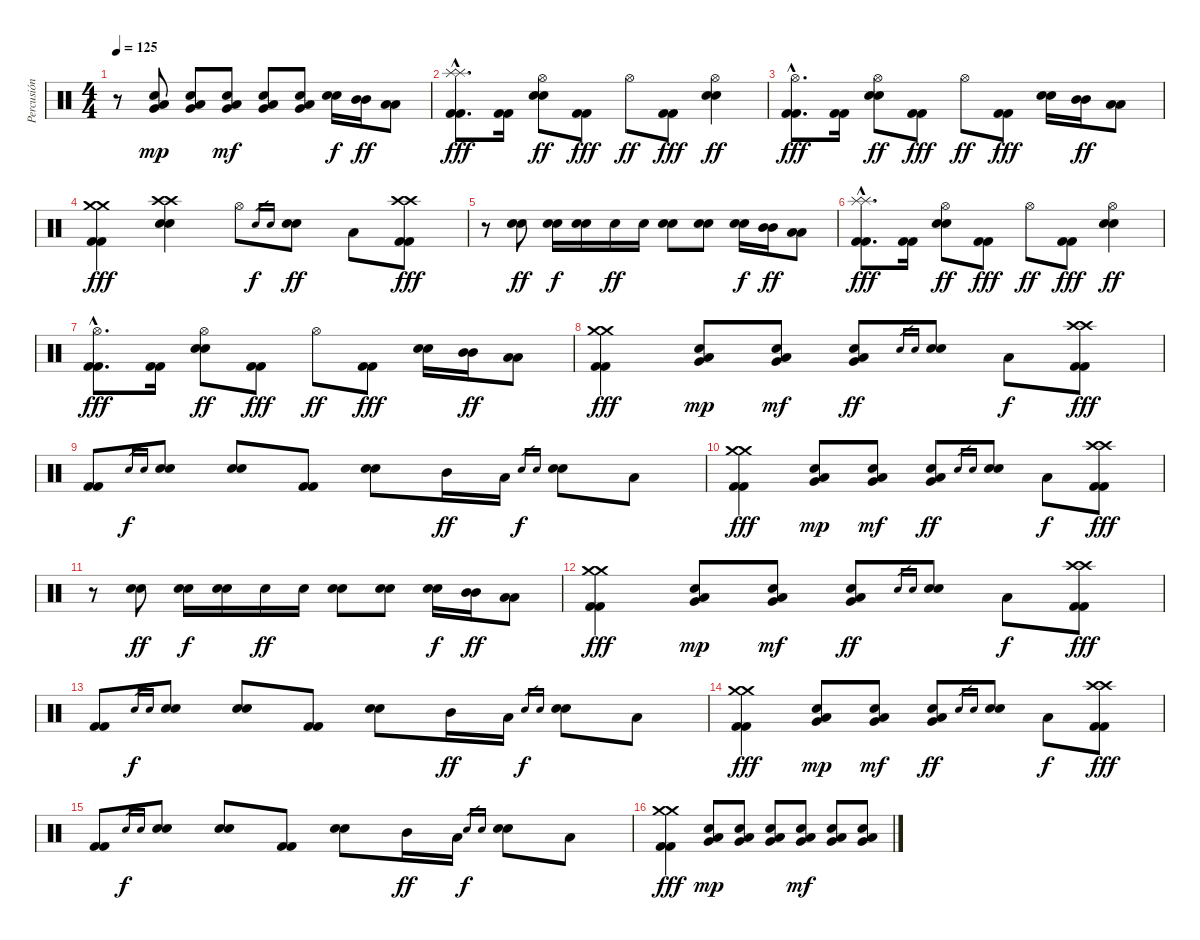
\track ("Percusión" "Percusión") {instrument percussion}
\staff {score}
\articulation defaults
\ts (4 4)
\tempo 125
\clef neutral
\ks c
r.8{dy fff} ("Electric Snare (hit)" "Low Tom (hit)" "Very Low Tom (hit)").8{dy mp} ("Electric Snare (hit)" "Low Tom (hit)" "Very Low Tom (hit)").8 ("Electric Snare (hit)" "Low Tom (hit)" "Very Low Tom (hit)").8{dy mf} ("Electric Snare (hit)" "Low Tom (hit)" "Very Low Tom (hit)").8 ("Electric Snare (hit)" "Low Tom (hit)" "Very Low Tom (hit)").8 ("Electric Snare (hit)" "Electric Snare (hit)").16{dy f} ("Mid Tom (hit)" "Mid Tom (hit)").16{dy ff} ("Low Tom (hit)" "Low Tom (hit)").8 |
("Splash (hit)"{hac} "Splash (hit)"{hac} "Kick (hit) 2"{hac} "Kick (hit) 2"{hac}).8{d dy fff} ("Kick (hit) 2" "Kick (hit) 2").16 ("Hi-Hat (open)" "Electric Snare (hit)" "Electric Snare (hit)").8{dy ff} ("Kick (hit) 2" "Kick (hit) 2").8{dy fff} "Hi-Hat (open)".8{dy ff} ("Kick (hit) 2" "Kick (hit) 2").8{dy fff} ("Hi-Hat (open)" "Electric Snare (hit)" "Electric Snare (hit)").4{dy ff} |
("Hi-Hat (open)"{hac} "Kick (hit) 2"{hac} "Kick (hit) 2"{hac}).8{d dy fff} ("Kick (hit) 2" "Kick (hit) 2").16 ("Hi-Hat (open)" "Electric Snare (hit)" "Electric Snare (hit)").8{dy ff} ("Kick (hit) 2" "Kick (hit) 2").8{dy fff} "Hi-Hat (open)".8{dy ff} ("Kick (hit) 2" "Kick (hit) 2").8{dy fff} ("Electric Snare (hit)" "Electric Snare (hit)").16 ("Mid Tom (hit)" "Mid Tom (hit)").16{dy ff} ("Low Tom (hit)" "Low Tom (hit)").8 |
("Crash medium (hit)" "Crash medium (hit)" "Kick (hit) 2" "Kick (hit) 2").4{dy fff} ("Crash high (hit)" "Crash high (hit)" "Electric Snare (hit)" "Electric Snare (hit)").4 "Hi-Hat (open)".8 "Electric Snare (hit)".16{gr dy f} "Electric Snare (hit)".16{gr} ("Electric Snare (hit)" "Electric Snare (hit)").8{dy ff} "Low Tom (hit)".8 ("Crash high (hit)" "Crash high (hit)" "Kick (hit) 2" "Kick (hit) 2").8{dy fff} |
r.8 ("Electric Snare (hit)" "Electric Snare (hit)").8{dy ff} ("Electric Snare (hit)" "Electric Snare (hit)").16{dy f} ("Electric Snare (hit)" "Electric Snare (hit)").16 "Electric Snare (hit)".16{dy ff} "Electric Snare (hit)".16 ("Electric Snare (hit)" "Electric Snare (hit)").8 ("Electric Snare (hit)" "Electric Snare (hit)").8 ("Electric Snare (hit)" "Electric Snare (hit)").16{dy f} ("Mid Tom (hit)" "Mid Tom (hit)").16{dy ff} ("Low Tom (hit)" "Low Tom (hit)").8 |
("Splash (hit)"{hac} "Splash (hit)"{hac} "Kick (hit) 2"{hac} "Kick (hit) 2"{hac}).8{d dy fff} ("Kick (hit) 2" "Kick (hit) 2").16 ("Hi-Hat (open)" "Electric Snare (hit)" "Electric Snare (hit)").8{dy ff} ("Kick (hit) 2" "Kick (hit) 2").8{dy fff} "Hi-Hat (open)".8{dy ff} ("Kick (hit) 2" "Kick (hit) 2").8{dy fff} ("Hi-Hat (open)" "Electric Snare (hit)" "Electric Snare (hit)").4{dy ff} |
("Hi-Hat (open)"{hac} "Kick (hit) 2"{hac} "Kick (hit) 2"{hac}).8{d dy fff} ("Kick (hit) 2" "Kick (hit) 2").16 ("Hi-Hat (open)" "Electric Snare (hit)" "Electric Snare (hit)").8{dy ff} ("Kick (hit) 2" "Kick (hit) 2").8{dy fff} "Hi-Hat (open)".8{dy ff} ("Kick (hit) 2" "Kick (hit) 2").8{dy fff} ("Electric Snare (hit)" "Electric Snare (hit)").16 ("Mid Tom (hit)" "Mid Tom (hit)").16{dy ff} ("Low Tom (hit)" "Low Tom (hit)").8 |
("Crash medium (hit)" "Crash medium (hit)" "Kick (hit) 2" "Kick (hit) 2").4{dy fff} ("Electric Snare (hit)" "Low Tom (hit)" "Very Low Tom (hit)").8{dy mp} ("Electric Snare (hit)" "Low Tom (hit)" "Very Low Tom (hit)").8{dy mf} ("Electric Snare (hit)" "Low Tom (hit)" "Very Low Tom (hit)").8{dy ff} "Electric Snare (hit)".16{gr} "Electric Snare (hit)".16{gr} ("Electric Snare (hit)" "Electric Snare (hit)").8 "Low Tom (hit)".8{dy f} ("Crash high (hit)" "Crash high (hit)" "Kick (hit) 2" "Kick (hit) 2").8{dy fff} |
("Kick (hit) 2" "Kick (hit) 2").8 "Electric Snare (hit)".16{gr dy f} "Electric Snare (hit)".16{gr} ("Electric Snare (hit)" "Electric Snare (hit)").8 ("Electric Snare (hit)" "Electric Snare (hit)").8 ("Kick (hit) 2" "Kick (hit) 2").8 ("Electric Snare (hit)" "Electric Snare (hit)").8 "Mid Tom (hit)".16{dy ff} "Low Tom (hit)".16 "Electric Snare (hit)".16{gr dy f} "Electric Snare (hit)".16{gr} ("Electric Snare (hit)" "Electric Snare (hit)").8 "Low Tom (hit)".8 |
("Crash medium (hit)" "Crash medium (hit)" "Kick (hit) 2" "Kick (hit) 2").4{dy fff} ("Electric Snare (hit)" "Low Tom (hit)" "Very Low Tom (hit)").8{dy mp} ("Electric Snare (hit)" "Low Tom (hit)" "Very Low Tom (hit)").8{dy mf} ("Electric Snare (hit)" "Low Tom (hit)" "Very Low Tom (hit)").8{dy ff} "Electric Snare (hit)".16{gr} "Electric Snare (hit)".16{gr} ("Electric Snare (hit)" "Electric Snare (hit)").8 "Low Tom (hit)".8{dy f} ("Crash high (hit)" "Crash high (hit)" "Kick (hit) 2" "Kick (hit) 2").8{dy fff} |
r.8 ("Electric Snare (hit)" "Electric Snare (hit)").8{dy ff} ("Electric Snare (hit)" "Electric Snare (hit)").16{dy f} ("Electric Snare (hit)" "Electric Snare (hit)").16 "Electric Snare (hit)".16{dy ff} "Electric Snare (hit)".16 ("Electric Snare (hit)" "Electric Snare (hit)").8 ("Electric Snare (hit)" "Electric Snare (hit)").8 ("Electric Snare (hit)" "Electric Snare (hit)").16{dy f} ("Mid Tom (hit)" "Mid Tom (hit)").16{dy ff} ("Low Tom (hit)" "Low Tom (hit)").8 |
("Crash medium (hit)" "Crash medium (hit)" "Kick (hit) 2" "Kick (hit) 2").4{dy fff} ("Electric Snare (hit)" "Low Tom (hit)" "Very Low Tom (hit)").8{dy mp} ("Electric Snare (hit)" "Low Tom (hit)" "Very Low Tom (hit)").8{dy mf} ("Electric Snare (hit)" "Low Tom (hit)" "Very Low Tom (hit)").8{dy ff} "Electric Snare (hit)".16{gr} "Electric Snare (hit)".16{gr} ("Electric Snare (hit)" "Electric Snare (hit)").8 "Low Tom (hit)".8{dy f} ("Crash high (hit)" "Crash high (hit)" "Kick (hit) 2" "Kick (hit) 2").8{dy fff} |
("Kick (hit) 2" "Kick (hit) 2").8 "Electric Snare (hit)".16{gr dy f} "Electric Snare (hit)".16{gr} ("Electric Snare (hit)" "Electric Snare (hit)").8 ("Electric Snare (hit)" "Electric Snare (hit)").8 ("Kick (hit) 2" "Kick (hit) 2").8 ("Electric Snare (hit)" "Electric Snare (hit)").8 "Mid Tom (hit)".16{dy ff} "Low Tom (hit)".16 "Electric Snare (hit)".16{gr dy f} "Electric Snare (hit)".16{gr} ("Electric Snare (hit)" "Electric Snare (hit)").8 "Low Tom (hit)".8 |
("Crash medium (hit)" "Crash medium (hit)" "Kick (hit) 2" "Kick (hit) 2").4{dy fff} ("Electric Snare (hit)" "Low Tom (hit)" "Very Low Tom (hit)").8{dy mp} ("Electric Snare (hit)" "Low Tom (hit)" "Very Low Tom (hit)").8{dy mf} ("Electric Snare (hit)" "Low Tom (hit)" "Very Low Tom (hit)").8{dy ff} "Electric Snare (hit)".16{gr} "Electric Snare (hit)".16{gr} ("Electric Snare (hit)" "Electric Snare (hit)").8 "Low Tom (hit)".8{dy f} ("Crash high (hit)" "Crash high (hit)" "Kick (hit) 2" "Kick (hit) 2").8{dy fff} |
("Kick (hit) 2" "Kick (hit) 2").8 "Electric Snare (hit)".16{gr dy f} "Electric Snare (hit)".16{gr} ("Electric Snare (hit)" "Electric Snare (hit)").8 ("Electric Snare (hit)" "Electric Snare (hit)").8 ("Kick (hit) 2" "Kick (hit) 2").8 ("Electric Snare (hit)" "Electric Snare (hit)").8 "Mid Tom (hit)".16{dy ff} "Low Tom (hit)".16 "Electric Snare (hit)".16{gr dy f} "Electric Snare (hit)".16{gr} ("Electric Snare (hit)" "Electric Snare (hit)").8 "Low Tom (hit)".8 |
("Crash medium (hit)" "Crash medium (hit)" "Kick (hit) 2" "Kick (hit) 2").4{dy fff} ("Electric Snare (hit)" "Low Tom (hit)" "Very Low Tom (hit)").8{dy mp} ("Electric Snare (hit)" "Low Tom (hit)" "Very Low Tom (hit)").8 ("Electric Snare (hit)" "Low Tom (hit)" "Very Low Tom (hit)").8 ("Electric Snare (hit)" "Low Tom (hit)" "Very Low Tom (hit)").8{dy mf} ("Electric Snare (hit)" "Low Tom (hit)" "Very Low Tom (hit)").8 ("Electric Snare (hit)" "Low Tom (hit)" "Very Low Tom (hit)").8
